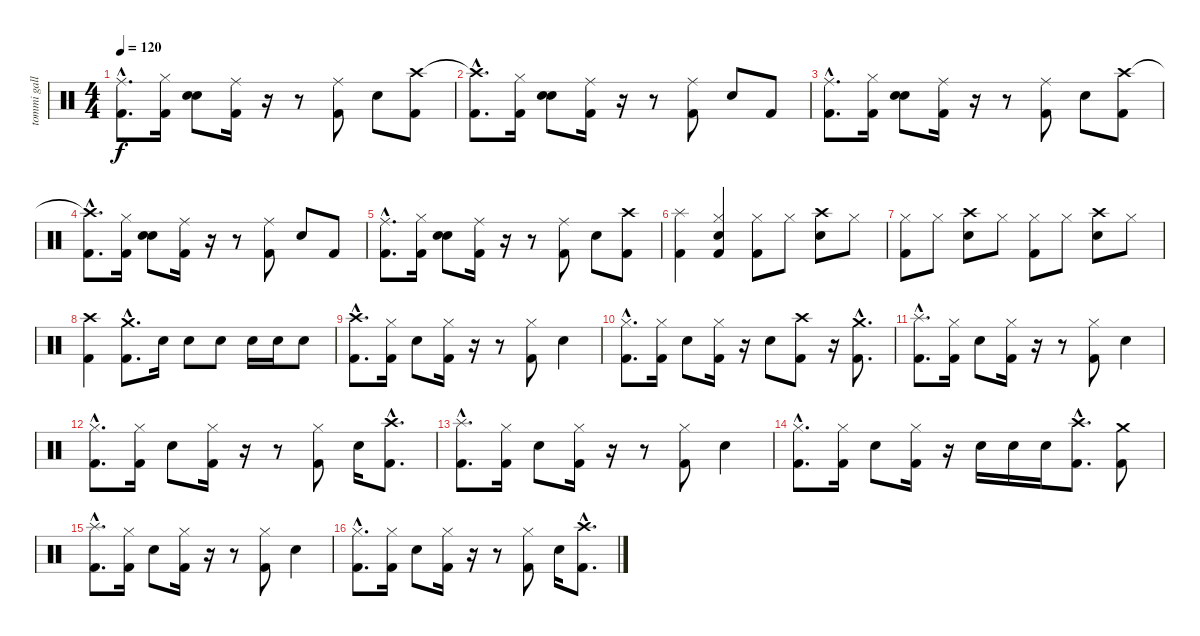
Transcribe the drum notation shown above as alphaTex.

\track ("tommi gallo" "tommi gall") {instrument percussion}
\staff {score}
\articulation defaults
\ts (4 4)
\tempo 120
\clef neutral
\ks c
("Ride (middle)"{hac} "Kick (hit) 2"{hac}).8{d dy f} ("Hi-Hat (closed)" "Kick (hit) 2").16 ("Snare (hit) 2" "Snare (hit) 2").8 ("Ride (middle)" "Kick (hit) 2").16 r.16 r.8 ("Ride (middle)" "Kick (hit) 2").8 "Snare (hit) 2".8 ("Crash high (hit)" "Kick (hit) 2").8 |
("Crash high (hit)"{hac t} "Kick (hit) 2"{hac}).8{d} ("Hi-Hat (closed)" "Kick (hit) 2").16 ("Snare (hit) 2" "Snare (hit) 2").8 ("Ride (middle)" "Kick (hit) 2").16 r.16 r.8 ("Ride (middle)" "Kick (hit) 2").8 "Snare (hit) 2".8 "Kick (hit) 2".8 |
("Ride (middle)"{hac} "Kick (hit) 2"{hac}).8{d} ("Hi-Hat (closed)" "Kick (hit) 2").16 ("Snare (hit) 2" "Snare (hit) 2").8 ("Ride (middle)" "Kick (hit) 2").16 r.16 r.8 ("Ride (middle)" "Kick (hit) 2").8 "Snare (hit) 2".8 ("Crash high (hit)" "Kick (hit) 2").8 |
("Crash high (hit)"{hac t} "Kick (hit) 2"{hac}).8{d} ("Hi-Hat (closed)" "Kick (hit) 2").16 ("Snare (hit) 2" "Snare (hit) 2").8 ("Ride (middle)" "Kick (hit) 2").16 r.16 r.8 ("Ride (middle)" "Kick (hit) 2").8 "Snare (hit) 2".8 "Kick (hit) 2".8 |
("Ride (middle)"{hac} "Kick (hit) 2"{hac}).8{d} ("Hi-Hat (closed)" "Kick (hit) 2").16 ("Snare (hit) 2" "Snare (hit) 2").8 ("Ride (middle)" "Kick (hit) 2").16 r.16 r.8 ("Ride (middle)" "Kick (hit) 2").8 "Snare (hit) 2".8 ("Crash high (hit)" "Kick (hit) 2").8 |
("Splash (hit)" "Kick (hit) 2").4 ("Hi-Hat (closed)" "Snare (hit) 2" "Kick (hit) 2").4 ("Hi-Hat (closed)" "Kick (hit) 2").8 "Hi-Hat (closed)".8 ("Crash high (hit)" "Snare (hit) 2").8 "Hi-Hat (closed)".8 |
("Hi-Hat (closed)" "Kick (hit) 2").8 "Hi-Hat (closed)".8 ("Crash high (hit)" "Snare (hit) 2").8 "Hi-Hat (closed)".8 ("Hi-Hat (closed)" "Kick (hit) 2").8 "Hi-Hat (closed)".8 ("Crash high (hit)" "Snare (hit) 2").8 "Hi-Hat (closed)".8 |
("Crash high (hit)" "Kick (hit) 2").4 ("Crash medium (hit)"{hac} "Kick (hit) 2"{hac}).8{d} "Snare (hit) 2".16 "Snare (hit) 2".8 "Snare (hit) 2".8 "Snare (hit) 2".16 "Snare (hit) 2".16 "Snare (hit) 2".8 |
("Crash high (hit)"{hac} "Kick (hit) 2"{hac}).8{d} ("Hi-Hat (closed)" "Kick (hit) 2").16 "Snare (hit) 2".8 ("Hi-Hat (closed)" "Kick (hit) 2").16 r.16 r.8 ("Hi-Hat (closed)" "Kick (hit) 2").8 "Snare (hit) 2".4 |
("Hi-Hat (closed)"{hac} "Kick (hit) 2"{hac}).8{d} ("Hi-Hat (closed)" "Kick (hit) 2").16 "Snare (hit) 2".8 ("Hi-Hat (closed)" "Kick (hit) 2").16 r.16 "Snare (hit) 2".8 ("Crash high (hit)" "Kick (hit) 2").8 r.16 ("Crash medium (hit)"{hac} "Kick (hit) 2"{hac}).8{d} |
("Splash (hit)"{hac} "Kick (hit) 2"{hac}).8{d} ("Hi-Hat (closed)" "Kick (hit) 2").16 "Snare (hit) 2".8 ("Hi-Hat (closed)" "Kick (hit) 2").16 r.16 r.8 ("Hi-Hat (closed)" "Kick (hit) 2").8 "Snare (hit) 2".4 |
("Hi-Hat (closed)"{hac} "Kick (hit) 2"{hac}).8{d} ("Hi-Hat (closed)" "Kick (hit) 2").16 "Snare (hit) 2".8 ("Hi-Hat (closed)" "Kick (hit) 2").16 r.16 r.8 ("Hi-Hat (closed)" "Kick (hit) 2").8 "Snare (hit) 2".16 ("Crash high (hit)"{hac} "Kick (hit) 2"{hac}).8{d} |
("Splash (hit)"{hac} "Kick (hit) 2"{hac}).8{d} ("Hi-Hat (closed)" "Kick (hit) 2").16 "Snare (hit) 2".8 ("Hi-Hat (closed)" "Kick (hit) 2").16 r.16 r.8 ("Hi-Hat (closed)" "Kick (hit) 2").8 "Snare (hit) 2".4 |
("Hi-Hat (closed)"{hac} "Kick (hit) 2"{hac}).8{d} ("Hi-Hat (closed)" "Kick (hit) 2").16 "Snare (hit) 2".8 ("Hi-Hat (closed)" "Kick (hit) 2").16 r.16 "Snare (hit) 2".16 "Snare (hit) 2".16 "Snare (hit) 2".16 ("Crash high (hit)"{hac} "Kick (hit) 2"{hac}).8{d} ("Crash medium (hit)" "Kick (hit) 2").8 |
("Splash (hit)"{hac} "Kick (hit) 2"{hac}).8{d} ("Hi-Hat (closed)" "Kick (hit) 2").16 "Snare (hit) 2".8 ("Hi-Hat (closed)" "Kick (hit) 2").16 r.16 r.8 ("Hi-Hat (closed)" "Kick (hit) 2").8 "Snare (hit) 2".4 |
("Hi-Hat (closed)"{hac} "Kick (hit) 2"{hac}).8{d} ("Hi-Hat (closed)" "Kick (hit) 2").16 "Snare (hit) 2".8 ("Hi-Hat (closed)" "Kick (hit) 2").16 r.16 r.8 ("Hi-Hat (closed)" "Kick (hit) 2").8 "Snare (hit) 2".16 ("Crash high (hit)"{hac} "Kick (hit) 2"{hac}).8{d}
